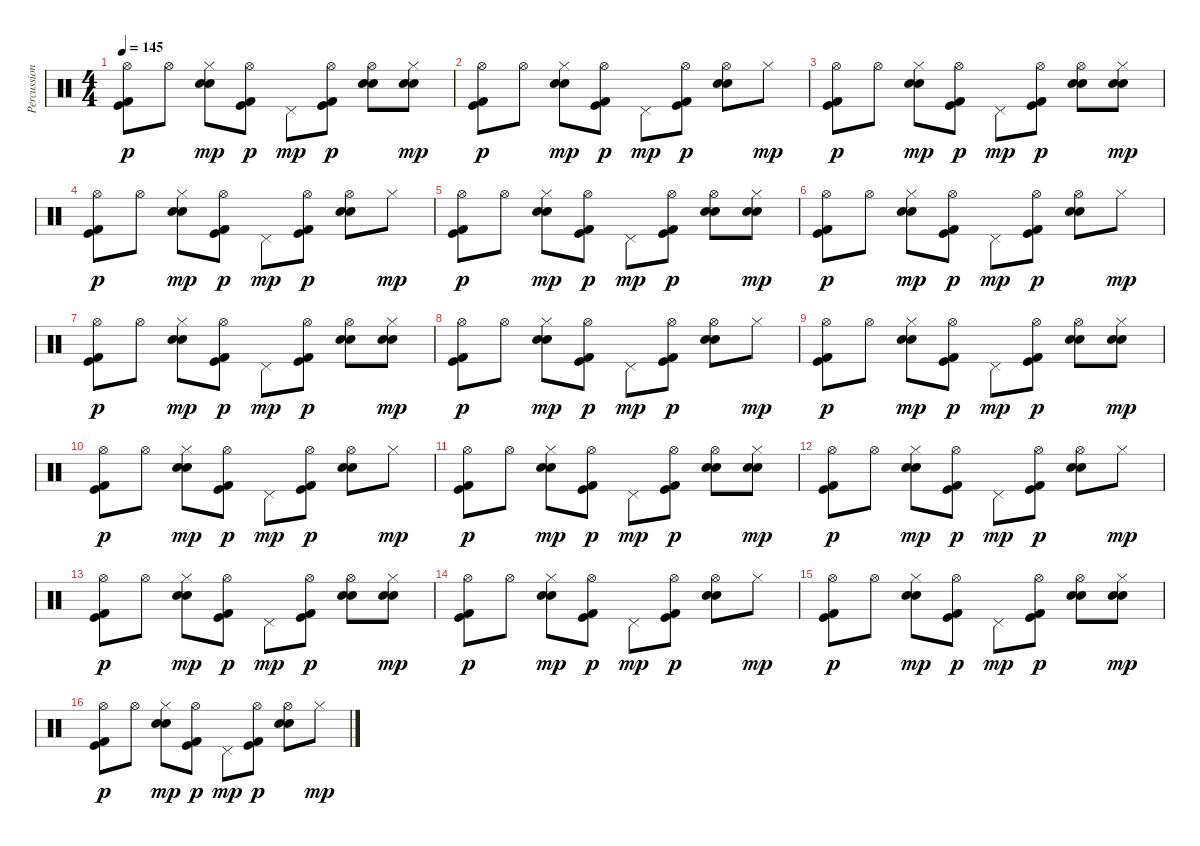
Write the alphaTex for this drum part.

\track ("Percussions" "Percussion") {instrument percussion}
\staff {score}
\articulation defaults
\ts (4 4)
\tempo 145
\clef neutral
\ks c
("Kick (hit) 2" "Kick (hit)" "Hi-Hat (open)").8{dy p} "Hi-Hat (open)".8 ("Snare (hit) 2" "Electric Snare (hit)" "Hi-Hat (closed)").8{dy mp} ("Kick (hit) 2" "Kick (hit)" "Hi-Hat (open)").8{dy p} "Pedal Hi-Hat (hit)".8{dy mp} ("Kick (hit) 2" "Kick (hit)" "Hi-Hat (open)").8{dy p} ("Snare (hit) 2" "Electric Snare (hit)" "Hi-Hat (open)").8 ("Snare (hit) 2" "Electric Snare (hit)" "Hi-Hat (closed)").8{dy mp} |
("Kick (hit) 2" "Kick (hit)" "Hi-Hat (open)").8{dy p} "Hi-Hat (open)".8 ("Snare (hit) 2" "Electric Snare (hit)" "Hi-Hat (closed)").8{dy mp} ("Kick (hit) 2" "Kick (hit)" "Hi-Hat (open)").8{dy p} "Pedal Hi-Hat (hit)".8{dy mp} ("Kick (hit) 2" "Kick (hit)" "Hi-Hat (open)").8{dy p} ("Snare (hit) 2" "Electric Snare (hit)" "Hi-Hat (open)").8 "Hi-Hat (closed)".8{dy mp} |
("Kick (hit) 2" "Kick (hit)" "Hi-Hat (open)").8{dy p} "Hi-Hat (open)".8 ("Snare (hit) 2" "Electric Snare (hit)" "Hi-Hat (closed)").8{dy mp} ("Kick (hit) 2" "Kick (hit)" "Hi-Hat (open)").8{dy p} "Pedal Hi-Hat (hit)".8{dy mp} ("Kick (hit) 2" "Kick (hit)" "Hi-Hat (open)").8{dy p} ("Snare (hit) 2" "Electric Snare (hit)" "Hi-Hat (open)").8 ("Snare (hit) 2" "Electric Snare (hit)" "Hi-Hat (closed)").8{dy mp} |
("Kick (hit) 2" "Kick (hit)" "Hi-Hat (open)").8{dy p} "Hi-Hat (open)".8 ("Snare (hit) 2" "Electric Snare (hit)" "Hi-Hat (closed)").8{dy mp} ("Kick (hit) 2" "Kick (hit)" "Hi-Hat (open)").8{dy p} "Pedal Hi-Hat (hit)".8{dy mp} ("Kick (hit) 2" "Kick (hit)" "Hi-Hat (open)").8{dy p} ("Snare (hit) 2" "Electric Snare (hit)" "Hi-Hat (open)").8 "Hi-Hat (closed)".8{dy mp} |
("Kick (hit) 2" "Kick (hit)" "Hi-Hat (open)").8{dy p} "Hi-Hat (open)".8 ("Snare (hit) 2" "Electric Snare (hit)" "Hi-Hat (closed)").8{dy mp} ("Kick (hit) 2" "Kick (hit)" "Hi-Hat (open)").8{dy p} "Pedal Hi-Hat (hit)".8{dy mp} ("Kick (hit) 2" "Kick (hit)" "Hi-Hat (open)").8{dy p} ("Snare (hit) 2" "Electric Snare (hit)" "Hi-Hat (open)").8 ("Snare (hit) 2" "Electric Snare (hit)" "Hi-Hat (closed)").8{dy mp} |
("Kick (hit) 2" "Kick (hit)" "Hi-Hat (open)").8{dy p} "Hi-Hat (open)".8 ("Snare (hit) 2" "Electric Snare (hit)" "Hi-Hat (closed)").8{dy mp} ("Kick (hit) 2" "Kick (hit)" "Hi-Hat (open)").8{dy p} "Pedal Hi-Hat (hit)".8{dy mp} ("Kick (hit) 2" "Kick (hit)" "Hi-Hat (open)").8{dy p} ("Snare (hit) 2" "Electric Snare (hit)" "Hi-Hat (open)").8 "Hi-Hat (closed)".8{dy mp} |
("Kick (hit) 2" "Kick (hit)" "Hi-Hat (open)").8{dy p} "Hi-Hat (open)".8 ("Snare (hit) 2" "Electric Snare (hit)" "Hi-Hat (closed)").8{dy mp} ("Kick (hit) 2" "Kick (hit)" "Hi-Hat (open)").8{dy p} "Pedal Hi-Hat (hit)".8{dy mp} ("Kick (hit) 2" "Kick (hit)" "Hi-Hat (open)").8{dy p} ("Snare (hit) 2" "Electric Snare (hit)" "Hi-Hat (open)").8 ("Snare (hit) 2" "Electric Snare (hit)" "Hi-Hat (closed)").8{dy mp} |
("Kick (hit) 2" "Kick (hit)" "Hi-Hat (open)").8{dy p} "Hi-Hat (open)".8 ("Snare (hit) 2" "Electric Snare (hit)" "Hi-Hat (closed)").8{dy mp} ("Kick (hit) 2" "Kick (hit)" "Hi-Hat (open)").8{dy p} "Pedal Hi-Hat (hit)".8{dy mp} ("Kick (hit) 2" "Kick (hit)" "Hi-Hat (open)").8{dy p} ("Snare (hit) 2" "Electric Snare (hit)" "Hi-Hat (open)").8 "Hi-Hat (closed)".8{dy mp} |
("Kick (hit) 2" "Kick (hit)" "Hi-Hat (open)").8{dy p} "Hi-Hat (open)".8 ("Snare (hit) 2" "Electric Snare (hit)" "Hi-Hat (closed)").8{dy mp} ("Kick (hit) 2" "Kick (hit)" "Hi-Hat (open)").8{dy p} "Pedal Hi-Hat (hit)".8{dy mp} ("Kick (hit) 2" "Kick (hit)" "Hi-Hat (open)").8{dy p} ("Snare (hit) 2" "Electric Snare (hit)" "Hi-Hat (open)").8 ("Snare (hit) 2" "Electric Snare (hit)" "Hi-Hat (closed)").8{dy mp} |
("Kick (hit) 2" "Kick (hit)" "Hi-Hat (open)").8{dy p} "Hi-Hat (open)".8 ("Snare (hit) 2" "Electric Snare (hit)" "Hi-Hat (closed)").8{dy mp} ("Kick (hit) 2" "Kick (hit)" "Hi-Hat (open)").8{dy p} "Pedal Hi-Hat (hit)".8{dy mp} ("Kick (hit) 2" "Kick (hit)" "Hi-Hat (open)").8{dy p} ("Snare (hit) 2" "Electric Snare (hit)" "Hi-Hat (open)").8 "Hi-Hat (closed)".8{dy mp} |
("Kick (hit) 2" "Kick (hit)" "Hi-Hat (open)").8{dy p} "Hi-Hat (open)".8 ("Snare (hit) 2" "Electric Snare (hit)" "Hi-Hat (closed)").8{dy mp} ("Kick (hit) 2" "Kick (hit)" "Hi-Hat (open)").8{dy p} "Pedal Hi-Hat (hit)".8{dy mp} ("Kick (hit) 2" "Kick (hit)" "Hi-Hat (open)").8{dy p} ("Snare (hit) 2" "Electric Snare (hit)" "Hi-Hat (open)").8 ("Snare (hit) 2" "Electric Snare (hit)" "Hi-Hat (closed)").8{dy mp} |
("Kick (hit) 2" "Kick (hit)" "Hi-Hat (open)").8{dy p} "Hi-Hat (open)".8 ("Snare (hit) 2" "Electric Snare (hit)" "Hi-Hat (closed)").8{dy mp} ("Kick (hit) 2" "Kick (hit)" "Hi-Hat (open)").8{dy p} "Pedal Hi-Hat (hit)".8{dy mp} ("Kick (hit) 2" "Kick (hit)" "Hi-Hat (open)").8{dy p} ("Snare (hit) 2" "Electric Snare (hit)" "Hi-Hat (open)").8 "Hi-Hat (closed)".8{dy mp} |
("Kick (hit) 2" "Kick (hit)" "Hi-Hat (open)").8{dy p} "Hi-Hat (open)".8 ("Snare (hit) 2" "Electric Snare (hit)" "Hi-Hat (closed)").8{dy mp} ("Kick (hit) 2" "Kick (hit)" "Hi-Hat (open)").8{dy p} "Pedal Hi-Hat (hit)".8{dy mp} ("Kick (hit) 2" "Kick (hit)" "Hi-Hat (open)").8{dy p} ("Snare (hit) 2" "Electric Snare (hit)" "Hi-Hat (open)").8 ("Snare (hit) 2" "Electric Snare (hit)" "Hi-Hat (closed)").8{dy mp} |
("Kick (hit) 2" "Kick (hit)" "Hi-Hat (open)").8{dy p} "Hi-Hat (open)".8 ("Snare (hit) 2" "Electric Snare (hit)" "Hi-Hat (closed)").8{dy mp} ("Kick (hit) 2" "Kick (hit)" "Hi-Hat (open)").8{dy p} "Pedal Hi-Hat (hit)".8{dy mp} ("Kick (hit) 2" "Kick (hit)" "Hi-Hat (open)").8{dy p} ("Snare (hit) 2" "Electric Snare (hit)" "Hi-Hat (open)").8 "Hi-Hat (closed)".8{dy mp} |
("Kick (hit) 2" "Kick (hit)" "Hi-Hat (open)").8{dy p} "Hi-Hat (open)".8 ("Snare (hit) 2" "Electric Snare (hit)" "Hi-Hat (closed)").8{dy mp} ("Kick (hit) 2" "Kick (hit)" "Hi-Hat (open)").8{dy p} "Pedal Hi-Hat (hit)".8{dy mp} ("Kick (hit) 2" "Kick (hit)" "Hi-Hat (open)").8{dy p} ("Snare (hit) 2" "Electric Snare (hit)" "Hi-Hat (open)").8 ("Snare (hit) 2" "Electric Snare (hit)" "Hi-Hat (closed)").8{dy mp} |
("Kick (hit) 2" "Kick (hit)" "Hi-Hat (open)").8{dy p} "Hi-Hat (open)".8 ("Snare (hit) 2" "Electric Snare (hit)" "Hi-Hat (closed)").8{dy mp} ("Kick (hit) 2" "Kick (hit)" "Hi-Hat (open)").8{dy p} "Pedal Hi-Hat (hit)".8{dy mp} ("Kick (hit) 2" "Kick (hit)" "Hi-Hat (open)").8{dy p} ("Snare (hit) 2" "Electric Snare (hit)" "Hi-Hat (open)").8 "Hi-Hat (closed)".8{dy mp}
